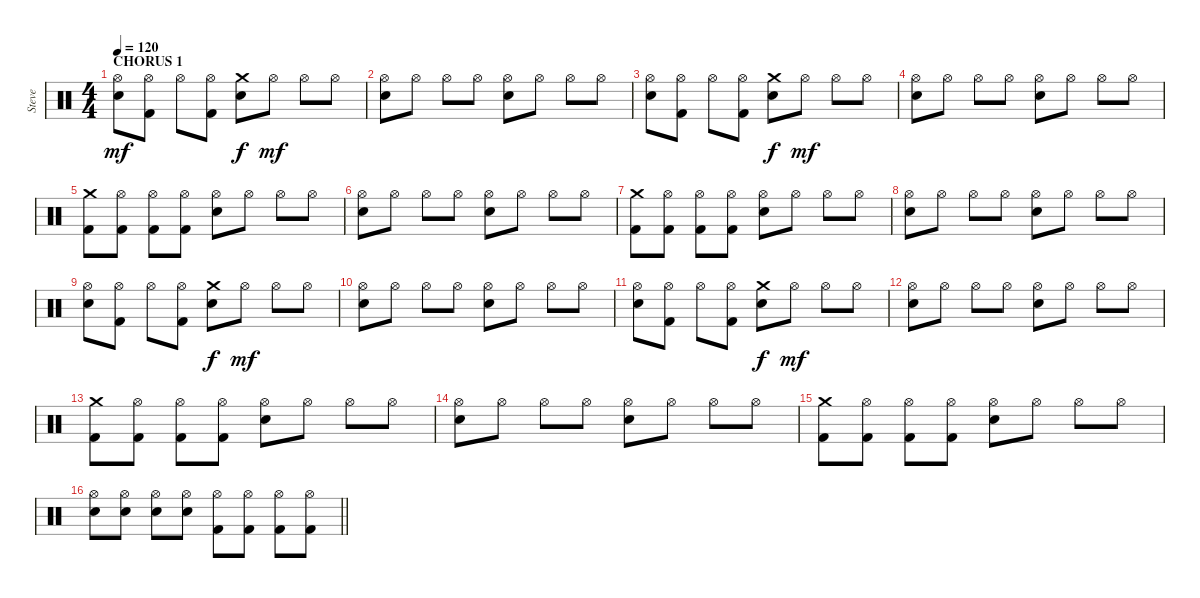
\track ("Steve" "Steve") {instrument percussion}
\staff {score}
\articulation defaults
\ts (4 4)
\section ("" "CHORUS 1")
\tempo 120
\clef neutral
\ks c
("Hi-Hat (open)" "Electric Snare (hit)").8{dy mf} ("Hi-Hat (open)" "Kick (hit) 2").8 "Hi-Hat (open)".8 ("Hi-Hat (open)" "Kick (hit) 2").8 ("Crash medium (hit)" "Electric Snare (hit)").8{dy f} "Hi-Hat (open)".8{dy mf} "Hi-Hat (open)".8 "Hi-Hat (open)".8 |
("Hi-Hat (open)" "Electric Snare (hit)").8 "Hi-Hat (open)".8 "Hi-Hat (open)".8 "Hi-Hat (open)".8 ("Hi-Hat (open)" "Electric Snare (hit)").8 "Hi-Hat (open)".8 "Hi-Hat (open)".8 "Hi-Hat (open)".8 |
("Hi-Hat (open)" "Electric Snare (hit)").8 ("Hi-Hat (open)" "Kick (hit) 2").8 "Hi-Hat (open)".8 ("Hi-Hat (open)" "Kick (hit) 2").8 ("Crash medium (hit)" "Electric Snare (hit)").8{dy f} "Hi-Hat (open)".8{dy mf} "Hi-Hat (open)".8 "Hi-Hat (open)".8 |
("Hi-Hat (open)" "Electric Snare (hit)").8 "Hi-Hat (open)".8 "Hi-Hat (open)".8 "Hi-Hat (open)".8 ("Hi-Hat (open)" "Electric Snare (hit)").8 "Hi-Hat (open)".8 "Hi-Hat (open)".8 "Hi-Hat (open)".8 |
("Crash medium (hit)" "Kick (hit) 2").8 ("Hi-Hat (open)" "Kick (hit) 2").8 ("Hi-Hat (open)" "Kick (hit) 2").8 ("Hi-Hat (open)" "Kick (hit) 2").8 ("Hi-Hat (open)" "Electric Snare (hit)").8 "Hi-Hat (open)".8 "Hi-Hat (open)".8 "Hi-Hat (open)".8 |
("Hi-Hat (open)" "Electric Snare (hit)").8 "Hi-Hat (open)".8 "Hi-Hat (open)".8 "Hi-Hat (open)".8 ("Hi-Hat (open)" "Electric Snare (hit)").8 "Hi-Hat (open)".8 "Hi-Hat (open)".8 "Hi-Hat (open)".8 |
("Crash medium (hit)" "Kick (hit) 2").8 ("Hi-Hat (open)" "Kick (hit) 2").8 ("Hi-Hat (open)" "Kick (hit) 2").8 ("Hi-Hat (open)" "Kick (hit) 2").8 ("Hi-Hat (open)" "Electric Snare (hit)").8 "Hi-Hat (open)".8 "Hi-Hat (open)".8 "Hi-Hat (open)".8 |
("Hi-Hat (open)" "Electric Snare (hit)").8 "Hi-Hat (open)".8 "Hi-Hat (open)".8 "Hi-Hat (open)".8 ("Hi-Hat (open)" "Electric Snare (hit)").8 "Hi-Hat (open)".8 "Hi-Hat (open)".8 "Hi-Hat (open)".8 |
("Hi-Hat (open)" "Electric Snare (hit)").8 ("Hi-Hat (open)" "Kick (hit) 2").8 "Hi-Hat (open)".8 ("Hi-Hat (open)" "Kick (hit) 2").8 ("Crash medium (hit)" "Electric Snare (hit)").8{dy f} "Hi-Hat (open)".8{dy mf} "Hi-Hat (open)".8 "Hi-Hat (open)".8 |
("Hi-Hat (open)" "Electric Snare (hit)").8 "Hi-Hat (open)".8 "Hi-Hat (open)".8 "Hi-Hat (open)".8 ("Hi-Hat (open)" "Electric Snare (hit)").8 "Hi-Hat (open)".8 "Hi-Hat (open)".8 "Hi-Hat (open)".8 |
("Hi-Hat (open)" "Electric Snare (hit)").8 ("Hi-Hat (open)" "Kick (hit) 2").8 "Hi-Hat (open)".8 ("Hi-Hat (open)" "Kick (hit) 2").8 ("Crash medium (hit)" "Electric Snare (hit)").8{dy f} "Hi-Hat (open)".8{dy mf} "Hi-Hat (open)".8 "Hi-Hat (open)".8 |
("Hi-Hat (open)" "Electric Snare (hit)").8 "Hi-Hat (open)".8 "Hi-Hat (open)".8 "Hi-Hat (open)".8 ("Hi-Hat (open)" "Electric Snare (hit)").8 "Hi-Hat (open)".8 "Hi-Hat (open)".8 "Hi-Hat (open)".8 |
("Crash medium (hit)" "Kick (hit) 2").8 ("Hi-Hat (open)" "Kick (hit) 2").8 ("Hi-Hat (open)" "Kick (hit) 2").8 ("Hi-Hat (open)" "Kick (hit) 2").8 ("Hi-Hat (open)" "Electric Snare (hit)").8 "Hi-Hat (open)".8 "Hi-Hat (open)".8 "Hi-Hat (open)".8 |
("Hi-Hat (open)" "Electric Snare (hit)").8 "Hi-Hat (open)".8 "Hi-Hat (open)".8 "Hi-Hat (open)".8 ("Hi-Hat (open)" "Electric Snare (hit)").8 "Hi-Hat (open)".8 "Hi-Hat (open)".8 "Hi-Hat (open)".8 |
("Crash medium (hit)" "Kick (hit) 2").8 ("Hi-Hat (open)" "Kick (hit) 2").8 ("Hi-Hat (open)" "Kick (hit) 2").8 ("Hi-Hat (open)" "Kick (hit) 2").8 ("Hi-Hat (open)" "Electric Snare (hit)").8 "Hi-Hat (open)".8 "Hi-Hat (open)".8 "Hi-Hat (open)".8 |
\barLineRight lightlight
("Hi-Hat (open)" "Electric Snare (hit)").8 ("Hi-Hat (open)" "Electric Snare (hit)").8 ("Hi-Hat (open)" "Electric Snare (hit)").8 ("Hi-Hat (open)" "Electric Snare (hit)").8 ("Hi-Hat (open)" "Kick (hit) 2").8 ("Hi-Hat (open)" "Kick (hit) 2").8 ("Hi-Hat (open)" "Kick (hit) 2").8 ("Hi-Hat (open)" "Kick (hit) 2").8
